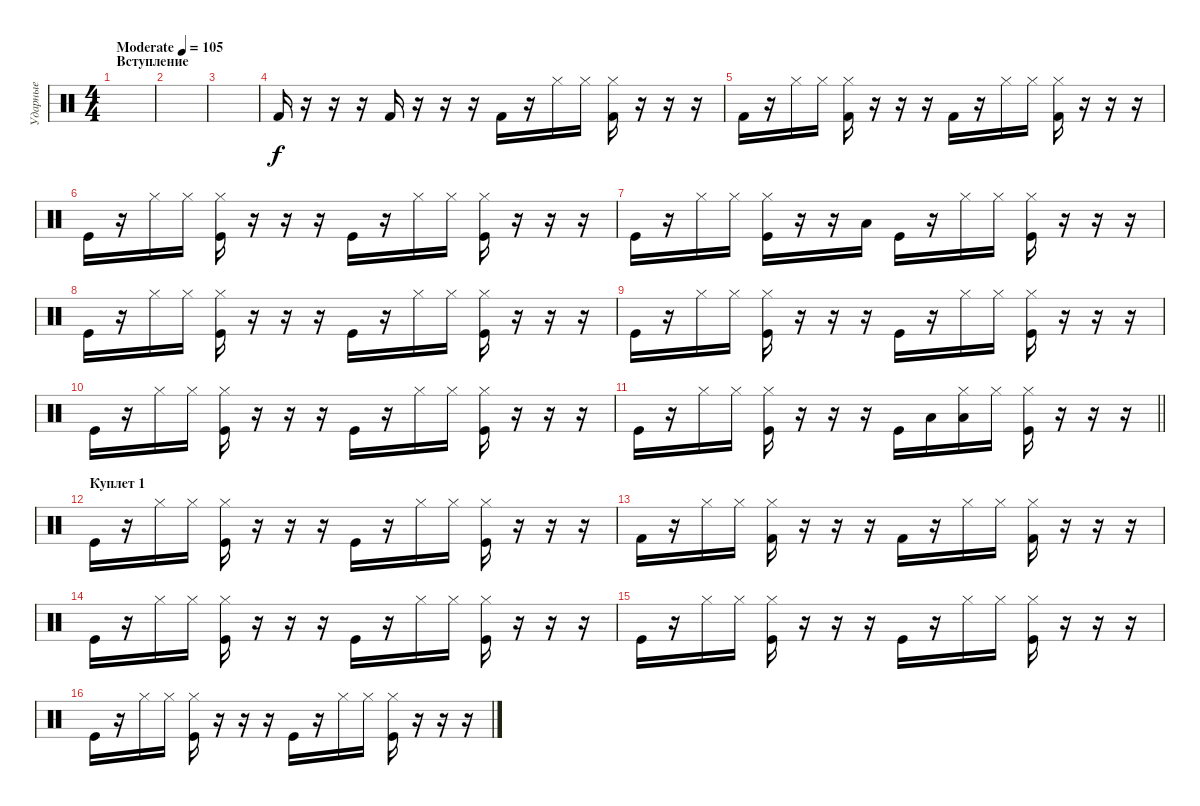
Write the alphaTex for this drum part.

\track ("Ударные" "Ударные") {instrument percussion}
\staff {score}
\articulation defaults
\ts (4 4)
\section ("" "Вступление")
\tempo (105 "Moderate")
\clef neutral
\ks c
|
|
|
"Kick (hit) 2".16 r.16 r.16 r.16 "Kick (hit) 2".16 r.16 r.16 r.16 "Kick (hit) 2".16 r.16 "Hi-Hat (closed)".16 "Hi-Hat (closed)".16 ("Hi-Hat (closed)" "Kick (hit) 2").16 r.16 r.16 r.16 |
"Kick (hit) 2".16 r.16 "Hi-Hat (closed)".16 "Hi-Hat (closed)".16 ("Hi-Hat (closed)" "Kick (hit) 2").16 r.16 r.16 r.16 "Kick (hit) 2".16 r.16 "Hi-Hat (closed)".16 "Hi-Hat (closed)".16 ("Hi-Hat (closed)" "Kick (hit) 2").16 r.16 r.16 r.16 |
"Kick (hit)".16 r.16 "Hi-Hat (closed)".16 "Hi-Hat (closed)".16 ("Hi-Hat (closed)" "Kick (hit)").16 r.16 r.16 r.16 "Kick (hit)".16 r.16 "Hi-Hat (closed)".16 "Hi-Hat (closed)".16 ("Hi-Hat (closed)" "Kick (hit)").16 r.16 r.16 r.16 |
"Kick (hit)".16 r.16 "Hi-Hat (closed)".16 "Hi-Hat (closed)".16 ("Hi-Hat (closed)" "Kick (hit)").16 r.16 r.16 "Low Tom (hit)".16 "Kick (hit)".16 r.16 "Hi-Hat (closed)".16 "Hi-Hat (closed)".16 ("Hi-Hat (closed)" "Kick (hit)").16 r.16 r.16 r.16 |
"Kick (hit)".16 r.16 "Hi-Hat (closed)".16 "Hi-Hat (closed)".16 ("Hi-Hat (closed)" "Kick (hit)").16 r.16 r.16 r.16 "Kick (hit)".16 r.16 "Hi-Hat (closed)".16 "Hi-Hat (closed)".16 ("Hi-Hat (closed)" "Kick (hit)").16 r.16 r.16 r.16 |
"Kick (hit)".16 r.16 "Hi-Hat (closed)".16 "Hi-Hat (closed)".16 ("Hi-Hat (closed)" "Kick (hit)").16 r.16 r.16 r.16 "Kick (hit)".16 r.16 "Hi-Hat (closed)".16 "Hi-Hat (closed)".16 ("Hi-Hat (closed)" "Kick (hit)").16 r.16 r.16 r.16 |
"Kick (hit)".16 r.16 "Hi-Hat (closed)".16 "Hi-Hat (closed)".16 ("Hi-Hat (closed)" "Kick (hit)").16 r.16 r.16 r.16 "Kick (hit)".16 r.16 "Hi-Hat (closed)".16 "Hi-Hat (closed)".16 ("Hi-Hat (closed)" "Kick (hit)").16 r.16 r.16 r.16 |
\barLineRight lightlight "Kick (hit)".16
r.16 "Hi-Hat (closed)".16 "Hi-Hat (closed)".16 ("Hi-Hat (closed)" "Kick (hit)").16 r.16 r.16 r.16 "Kick (hit)".16 "Low Tom (hit)".16 ("Low Tom (hit)" "Hi-Hat (closed)").16 "Hi-Hat (closed)".16 ("Hi-Hat (closed)" "Kick (hit)").16 r.16 r.16 r.16 |
\section ("" "Куплет 1")
"Kick (hit)".16 r.16 "Hi-Hat (closed)".16 "Hi-Hat (closed)".16 ("Hi-Hat (closed)" "Kick (hit)").16 r.16 r.16 r.16 "Kick (hit)".16 r.16 "Hi-Hat (closed)".16 "Hi-Hat (closed)".16 ("Hi-Hat (closed)" "Kick (hit)").16 r.16 r.16 r.16 |
"Kick (hit) 2".16 r.16 "Hi-Hat (closed)".16 "Hi-Hat (closed)".16 ("Hi-Hat (closed)" "Kick (hit) 2").16 r.16 r.16 r.16 "Kick (hit) 2".16 r.16 "Hi-Hat (closed)".16 "Hi-Hat (closed)".16 ("Hi-Hat (closed)" "Kick (hit) 2").16 r.16 r.16 r.16 |
"Kick (hit)".16 r.16 "Hi-Hat (closed)".16 "Hi-Hat (closed)".16 ("Hi-Hat (closed)" "Kick (hit)").16 r.16 r.16 r.16 "Kick (hit)".16 r.16 "Hi-Hat (closed)".16 "Hi-Hat (closed)".16 ("Hi-Hat (closed)" "Kick (hit)").16 r.16 r.16 r.16 |
"Kick (hit)".16 r.16 "Hi-Hat (closed)".16 "Hi-Hat (closed)".16 ("Hi-Hat (closed)" "Kick (hit)").16 r.16 r.16 r.16 "Kick (hit)".16 r.16 "Hi-Hat (closed)".16 "Hi-Hat (closed)".16 ("Hi-Hat (closed)" "Kick (hit)").16 r.16 r.16 r.16 |
"Kick (hit)".16 r.16 "Hi-Hat (closed)".16 "Hi-Hat (closed)".16 ("Hi-Hat (closed)" "Kick (hit)").16 r.16 r.16 r.16 "Kick (hit)".16 r.16 "Hi-Hat (closed)".16 "Hi-Hat (closed)".16 ("Hi-Hat (closed)" "Kick (hit)").16 r.16 r.16 r.16
